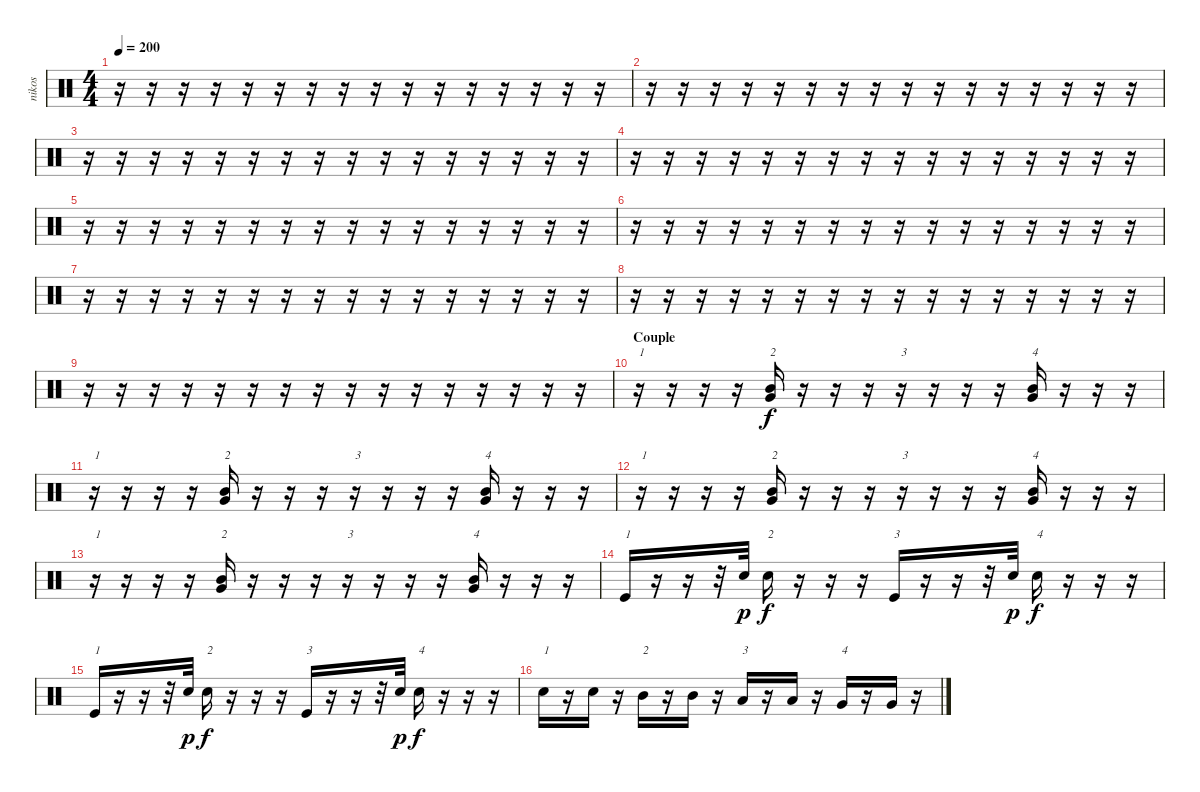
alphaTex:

\track ("nikos" "nikos") {instrument percussion}
\staff {score}
\articulation defaults
\ts (4 4)
\tempo 200
\clef neutral
\ks c
r.16{dy f} r.16 r.16 r.16 r.16 r.16 r.16 r.16 r.16 r.16 r.16 r.16 r.16 r.16 r.16 r.16 |
r.16 r.16 r.16 r.16 r.16 r.16 r.16 r.16 r.16 r.16 r.16 r.16 r.16 r.16 r.16 r.16 |
r.16 r.16 r.16 r.16 r.16 r.16 r.16 r.16 r.16 r.16 r.16 r.16 r.16 r.16 r.16 r.16 |
r.16 r.16 r.16 r.16 r.16 r.16 r.16 r.16 r.16 r.16 r.16 r.16 r.16 r.16 r.16 r.16 |
r.16 r.16 r.16 r.16 r.16 r.16 r.16 r.16 r.16 r.16 r.16 r.16 r.16 r.16 r.16 r.16 |
r.16 r.16 r.16 r.16 r.16 r.16 r.16 r.16 r.16 r.16 r.16 r.16 r.16 r.16 r.16 r.16 |
r.16 r.16 r.16 r.16 r.16 r.16 r.16 r.16 r.16 r.16 r.16 r.16 r.16 r.16 r.16 r.16 |
r.16 r.16 r.16 r.16 r.16 r.16 r.16 r.16 r.16 r.16 r.16 r.16 r.16 r.16 r.16 r.16 |
r.16 r.16 r.16 r.16 r.16 r.16 r.16 r.16 r.16 r.16 r.16 r.16 r.16 r.16 r.16 r.16 |
\section ("" "Couple")
r.16{txt "1"} r.16 r.16 r.16 ("Mid Tom (hit)" "Very Low Tom (hit)").16{txt "2"} r.16 r.16 r.16 r.16{txt "3"} r.16 r.16 r.16 ("Mid Tom (hit)" "Very Low Tom (hit)").16{txt "4"} r.16 r.16 r.16 |
r.16{txt "1"} r.16 r.16 r.16 ("Mid Tom (hit)" "Very Low Tom (hit)").16{txt "2"} r.16 r.16 r.16 r.16{txt "3"} r.16 r.16 r.16 ("Mid Tom (hit)" "Very Low Tom (hit)").16{txt "4"} r.16 r.16 r.16 |
r.16{txt "1"} r.16 r.16 r.16 ("Mid Tom (hit)" "Very Low Tom (hit)").16{txt "2"} r.16 r.16 r.16 r.16{txt "3"} r.16 r.16 r.16 ("Very Low Tom (hit)" "Mid Tom (hit)").16{txt "4"} r.16 r.16 r.16 |
r.16{txt "1"} r.16 r.16 r.16 ("Mid Tom (hit)" "Very Low Tom (hit)").16{txt "2"} r.16 r.16 r.16 r.16{txt "3"} r.16 r.16 r.16 ("Very Low Tom (hit)" "Mid Tom (hit)").16{txt "4"} r.16 r.16 r.16 |
"Kick (hit)".16{txt "1"} r.16 r.16 r.32 "Electric Snare (hit)".32{dy p} "Electric Snare (hit)".16{txt "2" dy f} r.16 r.16 r.16 "Kick (hit)".16{txt "3"} r.16 r.16 r.32 "Electric Snare (hit)".32{dy p} "Electric Snare (hit)".16{txt "4" dy f} r.16 r.16 r.16 |
"Kick (hit)".16{txt "1"} r.16 r.16 r.32 "Electric Snare (hit)".32{dy p} "Electric Snare (hit)".16{txt "2" dy f} r.16 r.16 r.16 "Kick (hit)".16{txt "3"} r.16 r.16 r.32 "Electric Snare (hit)".32{dy p} "Electric Snare (hit)".16{txt "4" dy f} r.16 r.16 r.16 |
"Electric Snare (hit)".16{txt "1"} r.16 "Electric Snare (hit)".16 r.16 "Mid Tom (hit)".16{txt "2"} r.16 "Mid Tom (hit)".16 r.16 "Low Tom (hit)".16{txt "3"} r.16 "Low Tom (hit)".16 r.16 "Very Low Tom (hit)".16{txt "4"} r.16 "Very Low Tom (hit)".16 r.16
